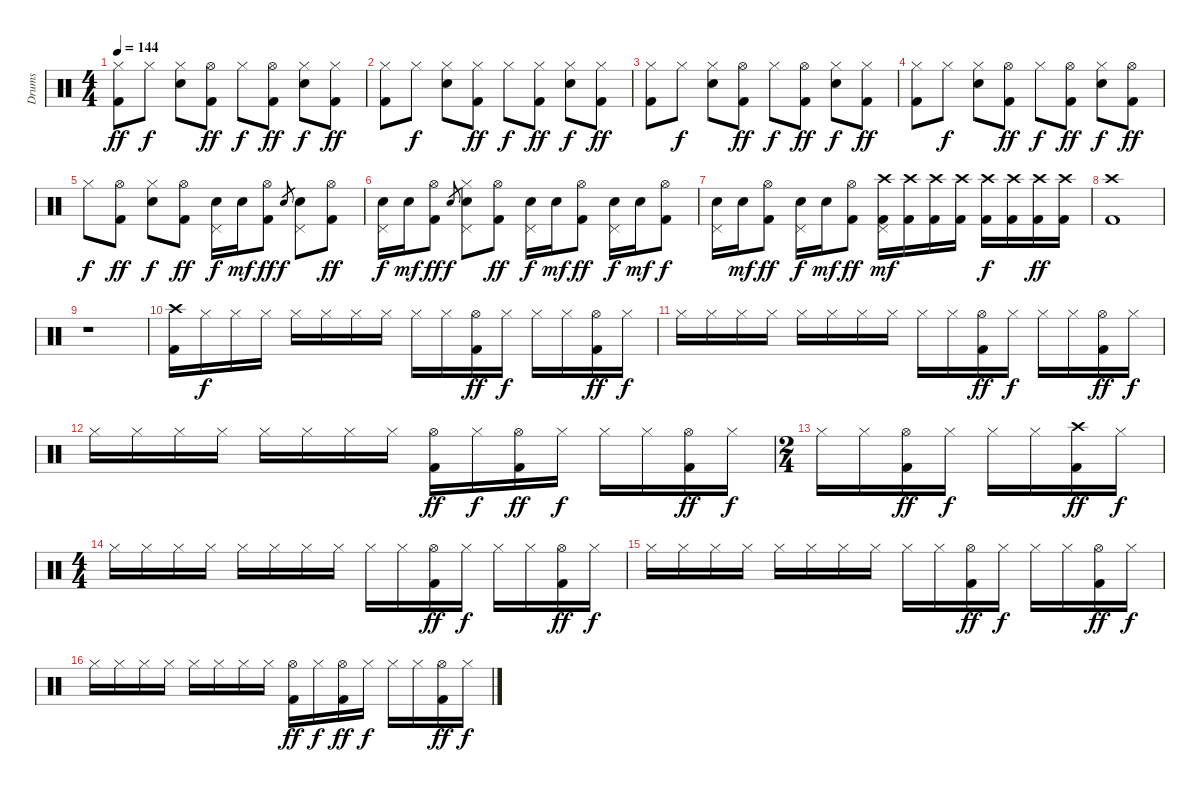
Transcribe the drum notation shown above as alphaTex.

\track ("Drums" "Drums") {instrument percussion}
\staff {score}
\articulation defaults
\ts (4 4)
\tempo 144
\clef neutral
\ks c
("Hi-Hat (closed)" "Kick (hit) 2").8{dy ff} "Hi-Hat (closed)".8{dy f} ("Hi-Hat (closed)" "Snare (hit) 2").8 ("Hi-Hat (open)" "Kick (hit) 2").8{dy ff} "Hi-Hat (closed)".8{dy f} ("Hi-Hat (open)" "Kick (hit) 2").8{dy ff} ("Hi-Hat (closed)" "Snare (hit) 2").8{dy f} ("Hi-Hat (closed)" "Kick (hit) 2").8{dy ff} |
("Hi-Hat (closed)" "Kick (hit) 2").8 "Hi-Hat (closed)".8{dy f} ("Hi-Hat (closed)" "Snare (hit) 2").8 ("Hi-Hat (closed)" "Kick (hit) 2").8{dy ff} "Hi-Hat (closed)".8{dy f} ("Hi-Hat (closed)" "Kick (hit) 2").8{dy ff} ("Hi-Hat (closed)" "Snare (hit) 2").8{dy f} ("Hi-Hat (closed)" "Kick (hit) 2").8{dy ff} |
("Hi-Hat (closed)" "Kick (hit) 2").8 "Hi-Hat (closed)".8{dy f} ("Hi-Hat (closed)" "Snare (hit) 2").8 ("Hi-Hat (open)" "Kick (hit) 2").8{dy ff} "Hi-Hat (closed)".8{dy f} ("Hi-Hat (open)" "Kick (hit) 2").8{dy ff} ("Hi-Hat (closed)" "Snare (hit) 2").8{dy f} ("Hi-Hat (closed)" "Kick (hit) 2").8{dy ff} |
("Hi-Hat (closed)" "Kick (hit) 2").8 "Hi-Hat (closed)".8{dy f} ("Hi-Hat (closed)" "Snare (hit) 2").8 ("Hi-Hat (open)" "Kick (hit) 2").8{dy ff} "Hi-Hat (closed)".8{dy f} ("Hi-Hat (open)" "Kick (hit) 2").8{dy ff} ("Hi-Hat (closed)" "Snare (hit) 2").8{dy f} ("Hi-Hat (open)" "Kick (hit) 2").8{dy ff} |
"Hi-Hat (closed)".8{dy f} ("Hi-Hat (open)" "Kick (hit) 2").8{dy ff} ("Hi-Hat (closed)" "Snare (hit) 2").8{dy f} ("Hi-Hat (open)" "Kick (hit) 2").8{dy ff} ("Pedal Hi-Hat (hit)" "Snare (hit) 2").16{dy f} "Snare (hit) 2".16{dy mf} ("Hi-Hat (open)" "Kick (hit) 2").8{dy ff} "Snare (hit) 2".8{gr dy f} ("Pedal Hi-Hat (hit)" "Snare (hit) 2").8 ("Hi-Hat (open)" "Kick (hit) 2").8{dy ff} |
("Pedal Hi-Hat (hit)" "Snare (hit) 2").16{dy f} "Snare (hit) 2".16{dy mf} ("Hi-Hat (open)" "Kick (hit) 2").8{dy ff} "Snare (hit) 2".8{gr dy f} ("Pedal Hi-Hat (hit)" "Hi-Hat (closed)" "Snare (hit) 2").8 ("Hi-Hat (open)" "Kick (hit) 2").8{dy ff} ("Pedal Hi-Hat (hit)" "Snare (hit) 2").16{dy f} "Snare (hit) 2".16{dy mf} ("Hi-Hat (open)" "Kick (hit) 2").8{dy ff} ("Pedal Hi-Hat (hit)" "Snare (hit) 2").16{dy f} "Snare (hit) 2".16{dy mf} ("Hi-Hat (open)" "Kick (hit) 2").8{dy f} |
("Pedal Hi-Hat (hit)" "Snare (hit) 2").16 "Snare (hit) 2".16{dy mf} ("Hi-Hat (open)" "Kick (hit) 2").8{dy ff} ("Pedal Hi-Hat (hit)" "Snare (hit) 2").16{dy f} "Snare (hit) 2".16{dy mf} ("Hi-Hat (open)" "Kick (hit) 2").8{dy ff} ("Crash high (hit)" "Pedal Hi-Hat (hit)" "Kick (hit) 2").16{dy mf} ("Crash high (hit)" "Kick (hit) 2").16 ("Crash high (hit)" "Kick (hit) 2").16 ("Crash high (hit)" "Kick (hit) 2").16 ("Crash high (hit)" "Kick (hit) 2").16{dy f} ("Crash high (hit)" "Kick (hit) 2").16 ("Crash high (hit)" "Kick (hit) 2").16{dy ff} ("Crash high (hit)" "Kick (hit) 2").16 |
("Crash high (hit)" "Kick (hit) 2").1 |
r.1 |
("Crash high (hit)" "Kick (hit) 2").16 "Hi-Hat (closed)".16{dy f} "Hi-Hat (closed)".16 "Hi-Hat (closed)".16 "Hi-Hat (closed)".16 "Hi-Hat (closed)".16 "Hi-Hat (closed)".16 "Hi-Hat (closed)".16 "Hi-Hat (closed)".16 "Hi-Hat (closed)".16 ("Hi-Hat (open)" "Kick (hit) 2").16{dy ff} "Hi-Hat (closed)".16{dy f} "Hi-Hat (closed)".16 "Hi-Hat (closed)".16 ("Hi-Hat (open)" "Kick (hit) 2").16{dy ff} "Hi-Hat (closed)".16{dy f} |
"Hi-Hat (closed)".16 "Hi-Hat (closed)".16 "Hi-Hat (closed)".16 "Hi-Hat (closed)".16 "Hi-Hat (closed)".16 "Hi-Hat (closed)".16 "Hi-Hat (closed)".16 "Hi-Hat (closed)".16 "Hi-Hat (closed)".16 "Hi-Hat (closed)".16 ("Hi-Hat (open)" "Kick (hit) 2").16{dy ff} "Hi-Hat (closed)".16{dy f} "Hi-Hat (closed)".16 "Hi-Hat (closed)".16 ("Hi-Hat (open)" "Kick (hit) 2").16{dy ff} "Hi-Hat (closed)".16{dy f} |
"Hi-Hat (closed)".16 "Hi-Hat (closed)".16 "Hi-Hat (closed)".16 "Hi-Hat (closed)".16 "Hi-Hat (closed)".16 "Hi-Hat (closed)".16 "Hi-Hat (closed)".16 "Hi-Hat (closed)".16 ("Hi-Hat (open)" "Kick (hit) 2").16{dy ff} "Hi-Hat (closed)".16{dy f} ("Hi-Hat (open)" "Kick (hit) 2").16{dy ff} "Hi-Hat (closed)".16{dy f} "Hi-Hat (closed)".16 "Hi-Hat (closed)".16 ("Hi-Hat (open)" "Kick (hit) 2").16{dy ff} "Hi-Hat (closed)".16{dy f} |
\ts (2 4)
"Hi-Hat (closed)".16 "Hi-Hat (closed)".16 ("Hi-Hat (open)" "Kick (hit) 2").16{dy ff} "Hi-Hat (closed)".16{dy f} "Hi-Hat (closed)".16 "Hi-Hat (closed)".16 ("Crash high (hit)" "Kick (hit) 2").16{dy ff} "Hi-Hat (closed)".16{dy f} |
\ts (4 4)
"Hi-Hat (closed)".16 "Hi-Hat (closed)".16 "Hi-Hat (closed)".16 "Hi-Hat (closed)".16 "Hi-Hat (closed)".16 "Hi-Hat (closed)".16 "Hi-Hat (closed)".16 "Hi-Hat (closed)".16 "Hi-Hat (closed)".16 "Hi-Hat (closed)".16 ("Hi-Hat (open)" "Kick (hit) 2").16{dy ff} "Hi-Hat (closed)".16{dy f} "Hi-Hat (closed)".16 "Hi-Hat (closed)".16 ("Hi-Hat (open)" "Kick (hit) 2").16{dy ff} "Hi-Hat (closed)".16{dy f} |
"Hi-Hat (closed)".16 "Hi-Hat (closed)".16 "Hi-Hat (closed)".16 "Hi-Hat (closed)".16 "Hi-Hat (closed)".16 "Hi-Hat (closed)".16 "Hi-Hat (closed)".16 "Hi-Hat (closed)".16 "Hi-Hat (closed)".16 "Hi-Hat (closed)".16 ("Hi-Hat (open)" "Kick (hit) 2").16{dy ff} "Hi-Hat (closed)".16{dy f} "Hi-Hat (closed)".16 "Hi-Hat (closed)".16 ("Hi-Hat (open)" "Kick (hit) 2").16{dy ff} "Hi-Hat (closed)".16{dy f} |
"Hi-Hat (closed)".16 "Hi-Hat (closed)".16 "Hi-Hat (closed)".16 "Hi-Hat (closed)".16 "Hi-Hat (closed)".16 "Hi-Hat (closed)".16 "Hi-Hat (closed)".16 "Hi-Hat (closed)".16 ("Hi-Hat (open)" "Kick (hit) 2").16{dy ff} "Hi-Hat (closed)".16{dy f} ("Hi-Hat (open)" "Kick (hit) 2").16{dy ff} "Hi-Hat (closed)".16{dy f} "Hi-Hat (closed)".16 "Hi-Hat (closed)".16 ("Hi-Hat (open)" "Kick (hit) 2").16{dy ff} "Hi-Hat (closed)".16{dy f}
